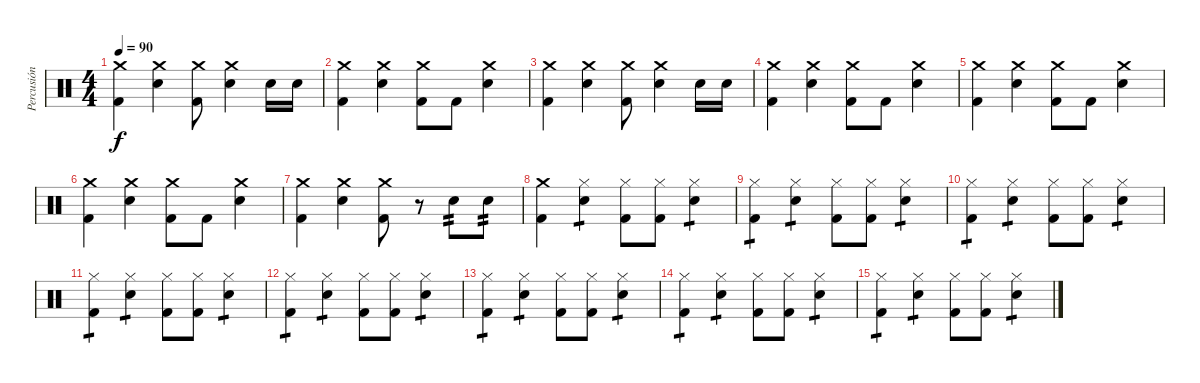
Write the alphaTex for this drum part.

\track ("Percusión" "Percusión") {instrument percussion}
\staff {score}
\articulation defaults
\ts (4 4)
\tempo 90
\clef neutral
\ks c
("Crash medium (hit)" "Kick (hit) 2").4{dy f} ("Crash medium (hit)" "Snare (hit) 2").4 ("Crash medium (hit)" "Kick (hit) 2").8 ("Crash medium (hit)" "Snare (hit) 2").4 "Snare (hit) 2".16 "Snare (hit) 2".16 |
("Crash medium (hit)" "Kick (hit) 2").4 ("Crash medium (hit)" "Snare (hit) 2").4 ("Crash medium (hit)" "Kick (hit) 2").8 "Kick (hit) 2".8 ("Crash medium (hit)" "Snare (hit) 2").4 |
("Crash medium (hit)" "Kick (hit) 2").4 ("Crash medium (hit)" "Snare (hit) 2").4 ("Crash medium (hit)" "Kick (hit) 2").8 ("Crash medium (hit)" "Snare (hit) 2").4 "Snare (hit) 2".16 "Snare (hit) 2".16 |
("Crash medium (hit)" "Kick (hit) 2").4 ("Crash medium (hit)" "Snare (hit) 2").4 ("Crash medium (hit)" "Kick (hit) 2").8 "Kick (hit) 2".8 ("Crash medium (hit)" "Snare (hit) 2").4 |
("Crash medium (hit)" "Kick (hit) 2").4 ("Crash medium (hit)" "Snare (hit) 2").4 ("Crash medium (hit)" "Kick (hit) 2").8 "Kick (hit) 2".8 ("Crash medium (hit)" "Snare (hit) 2").4 |
("Crash medium (hit)" "Kick (hit) 2").4 ("Crash medium (hit)" "Snare (hit) 2").4 ("Crash medium (hit)" "Kick (hit) 2").8 "Kick (hit) 2".8 ("Crash medium (hit)" "Snare (hit) 2").4 |
("Crash medium (hit)" "Kick (hit) 2").4 ("Crash medium (hit)" "Snare (hit) 2").4 ("Crash medium (hit)" "Kick (hit) 2").8 r.8 "Electric Snare (hit)".8{tp 2} "Electric Snare (hit)".8{tp 2} |
("Crash medium (hit)" "Kick (hit) 2").4 ("Hi-Hat (closed)" "Snare (hit) 2").4{tp 1} ("Hi-Hat (closed)" "Kick (hit) 2").8 ("Hi-Hat (closed)" "Kick (hit) 2").8 ("Hi-Hat (closed)" "Snare (hit) 2").4{tp 1} |
("Hi-Hat (closed)" "Kick (hit) 2").4{tp 1} ("Hi-Hat (closed)" "Snare (hit) 2").4{tp 1} ("Hi-Hat (closed)" "Kick (hit) 2").8 ("Hi-Hat (closed)" "Kick (hit) 2").8 ("Hi-Hat (closed)" "Snare (hit) 2").4{tp 1} |
("Hi-Hat (closed)" "Kick (hit) 2").4{tp 1} ("Hi-Hat (closed)" "Snare (hit) 2").4{tp 1} ("Hi-Hat (closed)" "Kick (hit) 2").8 ("Hi-Hat (closed)" "Kick (hit) 2").8 ("Hi-Hat (closed)" "Snare (hit) 2").4{tp 1} |
("Hi-Hat (closed)" "Kick (hit) 2").4{tp 1} ("Hi-Hat (closed)" "Snare (hit) 2").4{tp 1} ("Hi-Hat (closed)" "Kick (hit) 2").8 ("Hi-Hat (closed)" "Kick (hit) 2").8 ("Hi-Hat (closed)" "Snare (hit) 2").4{tp 1} |
("Hi-Hat (closed)" "Kick (hit) 2").4{tp 1} ("Hi-Hat (closed)" "Snare (hit) 2").4{tp 1} ("Hi-Hat (closed)" "Kick (hit) 2").8 ("Hi-Hat (closed)" "Kick (hit) 2").8 ("Hi-Hat (closed)" "Snare (hit) 2").4{tp 1} |
("Hi-Hat (closed)" "Kick (hit) 2").4{tp 1} ("Hi-Hat (closed)" "Snare (hit) 2").4{tp 1} ("Hi-Hat (closed)" "Kick (hit) 2").8 ("Hi-Hat (closed)" "Kick (hit) 2").8 ("Hi-Hat (closed)" "Snare (hit) 2").4{tp 1} |
("Hi-Hat (closed)" "Kick (hit) 2").4{tp 1} ("Hi-Hat (closed)" "Snare (hit) 2").4{tp 1} ("Hi-Hat (closed)" "Kick (hit) 2").8 ("Hi-Hat (closed)" "Kick (hit) 2").8 ("Hi-Hat (closed)" "Snare (hit) 2").4{tp 1} |
("Hi-Hat (closed)" "Kick (hit) 2").4{tp 1} ("Hi-Hat (closed)" "Snare (hit) 2").4{tp 1} ("Hi-Hat (closed)" "Kick (hit) 2").8 ("Hi-Hat (closed)" "Kick (hit) 2").8 ("Hi-Hat (closed)" "Snare (hit) 2").4{tp 1}
